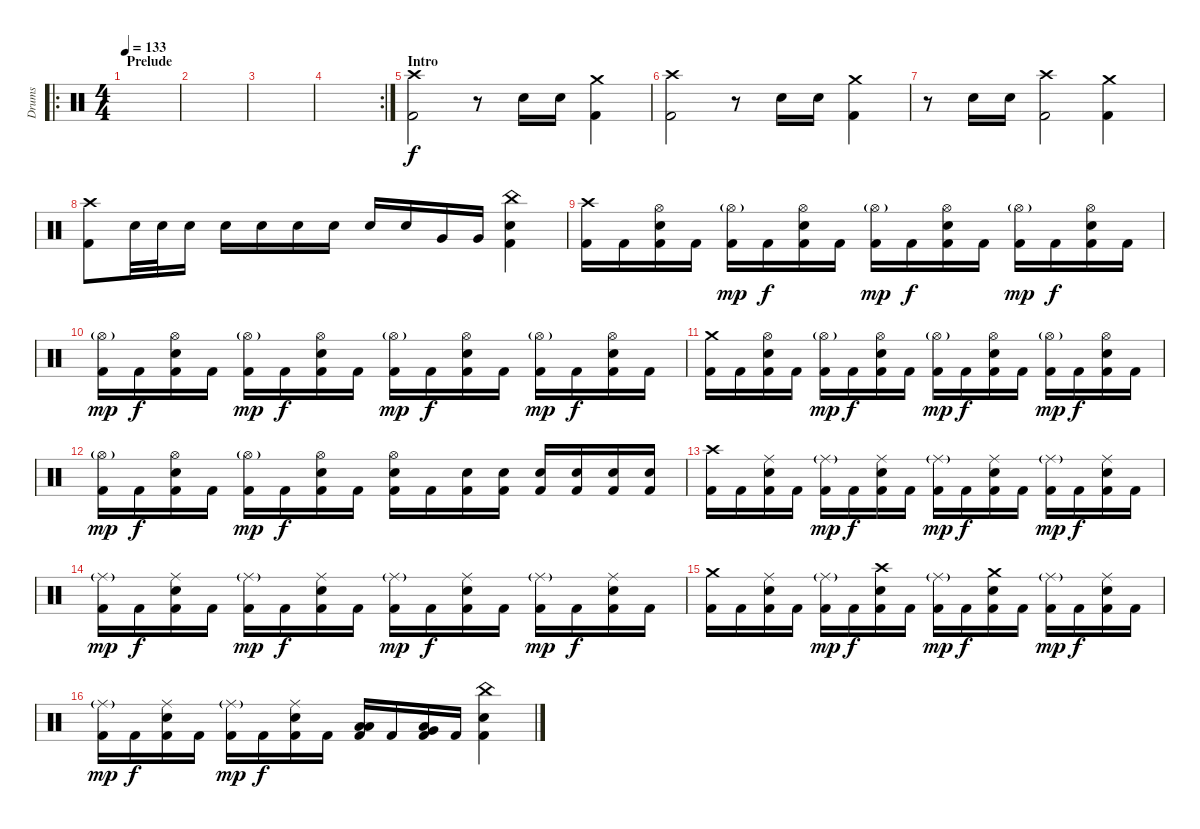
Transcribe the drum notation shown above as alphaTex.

\track ("Drums" "Drums") {instrument percussion}
\staff {score}
\articulation defaults
\ro
\ts (4 4)
\section ("" "Prelude")
\tempo 133
\clef neutral
\ks c
|
|
|
\rc 2
|
\section ("" "Intro")
("Crash high (hit)" "Kick (hit) 2").2 r.8 "Electric Snare (hit)".16 "Electric Snare (hit)".16 ("Crash medium (hit)" "Kick (hit) 2").4 |
("Crash high (hit)" "Kick (hit) 2").2 r.8 "Electric Snare (hit)".16 "Electric Snare (hit)".16 ("Crash medium (hit)" "Kick (hit) 2").4 |
r.8 "Electric Snare (hit)".16 "Electric Snare (hit)".16 ("Crash high (hit)" "Kick (hit) 2").2 ("Crash medium (hit)" "Kick (hit) 2").4 |
("Crash high (hit)" "Kick (hit) 2").8 "Electric Snare (hit)".32 "Electric Snare (hit)".32 "Electric Snare (hit)".16 "Electric Snare (hit)".16 "Electric Snare (hit)".16 "Electric Snare (hit)".16 "Electric Snare (hit)".16 "Electric Snare (hit)".16 "Electric Snare (hit)".16 "Very Low Tom (hit)".16 "Very Low Tom (hit)".16 ("China (hit)" "Electric Snare (hit)" "Kick (hit) 2").4 |
("Crash high (hit)" "Kick (hit) 2").16 "Kick (hit) 2".16 ("Hi-Hat (open)" "Electric Snare (hit)" "Kick (hit) 2").16 "Kick (hit) 2".16 ("Hi-Hat (open)"{g} "Kick (hit) 2").16{dy mp} "Kick (hit) 2".16{dy f} ("Hi-Hat (open)" "Electric Snare (hit)" "Kick (hit) 2").16 "Kick (hit) 2".16 ("Hi-Hat (open)"{g} "Kick (hit) 2").16{dy mp} "Kick (hit) 2".16{dy f} ("Hi-Hat (open)" "Electric Snare (hit)" "Kick (hit) 2").16 "Kick (hit) 2".16 ("Hi-Hat (open)"{g} "Kick (hit) 2").16{dy mp} "Kick (hit) 2".16{dy f} ("Hi-Hat (open)" "Electric Snare (hit)" "Kick (hit) 2").16 "Kick (hit) 2".16 |
("Hi-Hat (open)"{g} "Kick (hit) 2").16{dy mp} "Kick (hit) 2".16{dy f} ("Hi-Hat (open)" "Electric Snare (hit)" "Kick (hit) 2").16 "Kick (hit) 2".16 ("Hi-Hat (open)"{g} "Kick (hit) 2").16{dy mp} "Kick (hit) 2".16{dy f} ("Hi-Hat (open)" "Electric Snare (hit)" "Kick (hit) 2").16 "Kick (hit) 2".16 ("Hi-Hat (open)"{g} "Kick (hit) 2").16{dy mp} "Kick (hit) 2".16{dy f} ("Hi-Hat (open)" "Electric Snare (hit)" "Kick (hit) 2").16 "Kick (hit) 2".16 ("Hi-Hat (open)"{g} "Kick (hit) 2").16{dy mp} "Kick (hit) 2".16{dy f} ("Hi-Hat (open)" "Electric Snare (hit)" "Kick (hit) 2").16 "Kick (hit) 2".16 |
("Crash medium (hit)" "Kick (hit) 2").16 "Kick (hit) 2".16 ("Hi-Hat (open)" "Electric Snare (hit)" "Kick (hit) 2").16 "Kick (hit) 2".16 ("Hi-Hat (open)"{g} "Kick (hit) 2").16{dy mp} "Kick (hit) 2".16{dy f} ("Hi-Hat (open)" "Electric Snare (hit)" "Kick (hit) 2").16 "Kick (hit) 2".16 ("Hi-Hat (open)"{g} "Kick (hit) 2").16{dy mp} "Kick (hit) 2".16{dy f} ("Hi-Hat (open)" "Electric Snare (hit)" "Kick (hit) 2").16 "Kick (hit) 2".16 ("Hi-Hat (open)"{g} "Kick (hit) 2").16{dy mp} "Kick (hit) 2".16{dy f} ("Hi-Hat (open)" "Electric Snare (hit)" "Kick (hit) 2").16 "Kick (hit) 2".16 |
("Hi-Hat (open)"{g} "Kick (hit) 2").16{dy mp} "Kick (hit) 2".16{dy f} ("Hi-Hat (open)" "Electric Snare (hit)" "Kick (hit) 2").16 "Kick (hit) 2".16 ("Hi-Hat (open)"{g} "Kick (hit) 2").16{dy mp} "Kick (hit) 2".16{dy f} ("Hi-Hat (open)" "Electric Snare (hit)" "Kick (hit) 2").16 "Kick (hit) 2".16 ("Hi-Hat (open)" "Electric Snare (hit)" "Kick (hit) 2").16 "Kick (hit) 2".16 ("Electric Snare (hit)" "Kick (hit) 2").16 ("Electric Snare (hit)" "Kick (hit) 2").16 ("Electric Snare (hit)" "Kick (hit) 2").16 ("Electric Snare (hit)" "Kick (hit) 2").16 ("Electric Snare (hit)" "Kick (hit) 2").16 ("Electric Snare (hit)" "Kick (hit) 2").16 |
("Crash high (hit)" "Kick (hit) 2").16 "Kick (hit) 2".16 ("Ride (middle)" "Electric Snare (hit)" "Kick (hit) 2").16 "Kick (hit) 2".16 ("Ride (middle)"{g} "Kick (hit) 2").16{dy mp} "Kick (hit) 2".16{dy f} ("Ride (middle)" "Electric Snare (hit)" "Kick (hit) 2").16 "Kick (hit) 2".16 ("Ride (middle)"{g} "Kick (hit) 2").16{dy mp} "Kick (hit) 2".16{dy f} ("Ride (middle)" "Electric Snare (hit)" "Kick (hit) 2").16 "Kick (hit) 2".16 ("Ride (middle)"{g} "Kick (hit) 2").16{dy mp} "Kick (hit) 2".16{dy f} ("Ride (middle)" "Electric Snare (hit)" "Kick (hit) 2").16 "Kick (hit) 2".16 |
("Ride (middle)"{g} "Kick (hit) 2").16{dy mp} "Kick (hit) 2".16{dy f} ("Ride (middle)" "Electric Snare (hit)" "Kick (hit) 2").16 "Kick (hit) 2".16 ("Ride (middle)"{g} "Kick (hit) 2").16{dy mp} "Kick (hit) 2".16{dy f} ("Ride (middle)" "Electric Snare (hit)" "Kick (hit) 2").16 "Kick (hit) 2".16 ("Ride (middle)"{g} "Kick (hit) 2").16{dy mp} "Kick (hit) 2".16{dy f} ("Ride (middle)" "Electric Snare (hit)" "Kick (hit) 2").16 "Kick (hit) 2".16 ("Ride (middle)"{g} "Kick (hit) 2").16{dy mp} "Kick (hit) 2".16{dy f} ("Ride (middle)" "Electric Snare (hit)" "Kick (hit) 2").16 "Kick (hit) 2".16 |
("Crash medium (hit)" "Kick (hit) 2").16 "Kick (hit) 2".16 ("Ride (middle)" "Electric Snare (hit)" "Kick (hit) 2").16 "Kick (hit) 2".16 ("Ride (middle)"{g} "Kick (hit) 2").16{dy mp} "Kick (hit) 2".16{dy f} ("Crash high (hit)" "Electric Snare (hit)" "Kick (hit) 2").16 "Kick (hit) 2".16 ("Ride (middle)"{g} "Kick (hit) 2").16{dy mp} "Kick (hit) 2".16{dy f} ("Crash medium (hit)" "Electric Snare (hit)" "Kick (hit) 2").16 "Kick (hit) 2".16 ("Ride (middle)"{g} "Kick (hit) 2").16{dy mp} "Kick (hit) 2".16{dy f} ("Ride (middle)" "Electric Snare (hit)" "Kick (hit) 2").16 "Kick (hit) 2".16 |
("Ride (middle)"{g} "Kick (hit) 2").16{dy mp} "Kick (hit) 2".16{dy f} ("Ride (middle)" "Electric Snare (hit)" "Kick (hit) 2").16 "Kick (hit) 2".16 ("Ride (middle)"{g} "Kick (hit) 2").16{dy mp} "Kick (hit) 2".16{dy f} ("Ride (middle)" "Electric Snare (hit)" "Kick (hit) 2").16 "Kick (hit) 2".16 ("Low Tom (hit)" "Low Floor Tom (hit)" "Kick (hit) 2").16 "Kick (hit) 2".16 ("Very Low Tom (hit)" "Low Floor Tom (hit)" "Kick (hit) 2").16 "Kick (hit) 2".16 ("China (hit)" "Electric Snare (hit)" "Kick (hit) 2").4
